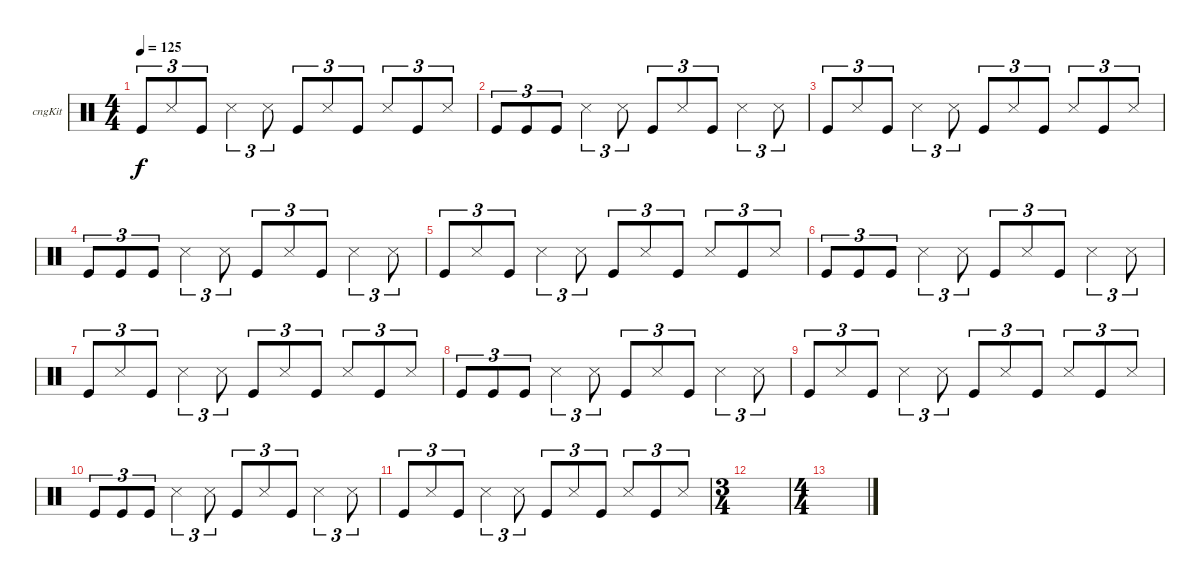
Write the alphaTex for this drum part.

\defaultSystemsLayout 4
\bracketExtendMode groupsimilarinstruments
\firstSystemTrackNameOrientation horizontal
\otherSystemsTrackNameOrientation horizontal
\track ("Congas" "cngKit") {instrument percussion}
\staff {score}
\articulation defaults
\ts (4 4)
\tempo 125
\clef neutral
\scale
0.333333
\ks c "Kick (hit)".8{tu (3 2) dy f} "Snare (side stick) 3".8{tu (3 2)} "Kick (hit)".8{tu (3 2)} "Snare (side stick) 3".4{tu (3 2)} "Snare (side stick) 3".8{tu (3 2)} "Kick (hit)".8{tu (3 2)} "Snare (side stick) 3".8{tu (3 2)} "Kick (hit)".8{tu (3 2)} "Snare (side stick) 3".8{tu (3 2)} "Kick (hit)".8{tu (3 2)} "Snare (side stick) 3".8{tu (3 2)}
|
\scale
0.333333 "Kick (hit)".8{tu (3 2)} "Kick (hit)".8{tu (3 2)} "Kick (hit)".8{tu (3 2)} "Snare (side stick) 3".4{tu (3 2)} "Snare (side stick) 3".8{tu (3 2)} "Kick (hit)".8{tu (3 2)} "Snare (side stick) 3".8{tu (3 2)} "Kick (hit)".8{tu (3 2)} "Snare (side stick) 3".4{tu (3 2)} "Snare (side stick) 3".8{tu (3 2)} |
\scale
0.333333 "Kick (hit)".8{tu (3 2)} "Snare (side stick) 3".8{tu (3 2)} "Kick (hit)".8{tu (3 2)} "Snare (side stick) 3".4{tu (3 2)} "Snare (side stick) 3".8{tu (3 2)} "Kick (hit)".8{tu (3 2)} "Snare (side stick) 3".8{tu (3 2)} "Kick (hit)".8{tu (3 2)} "Snare (side stick) 3".8{tu (3 2)} "Kick (hit)".8{tu (3 2)} "Snare (side stick) 3".8{tu (3 2)} |
\scale
0.333333 "Kick (hit)".8{tu (3 2)} "Kick (hit)".8{tu (3 2)} "Kick (hit)".8{tu (3 2)} "Snare (side stick) 3".4{tu (3 2)} "Snare (side stick) 3".8{tu (3 2)} "Kick (hit)".8{tu (3 2)} "Snare (side stick) 3".8{tu (3 2)} "Kick (hit)".8{tu (3 2)} "Snare (side stick) 3".4{tu (3 2)} "Snare (side stick) 3".8{tu (3 2)} |
\scale
0.333333 "Kick (hit)".8{tu (3 2)} "Snare (side stick) 3".8{tu (3 2)} "Kick (hit)".8{tu (3 2)} "Snare (side stick) 3".4{tu (3 2)} "Snare (side stick) 3".8{tu (3 2)} "Kick (hit)".8{tu (3 2)} "Snare (side stick) 3".8{tu (3 2)} "Kick (hit)".8{tu (3 2)} "Snare (side stick) 3".8{tu (3 2)} "Kick (hit)".8{tu (3 2)} "Snare (side stick) 3".8{tu (3 2)} |
\scale
0.333333 "Kick (hit)".8{tu (3 2)} "Kick (hit)".8{tu (3 2)} "Kick (hit)".8{tu (3 2)} "Snare (side stick) 3".4{tu (3 2)} "Snare (side stick) 3".8{tu (3 2)} "Kick (hit)".8{tu (3 2)} "Snare (side stick) 3".8{tu (3 2)} "Kick (hit)".8{tu (3 2)} "Snare (side stick) 3".4{tu (3 2)} "Snare (side stick) 3".8{tu (3 2)} |
\scale
0.333333 "Kick (hit)".8{tu (3 2)} "Snare (side stick) 3".8{tu (3 2)} "Kick (hit)".8{tu (3 2)} "Snare (side stick) 3".4{tu (3 2)} "Snare (side stick) 3".8{tu (3 2)} "Kick (hit)".8{tu (3 2)} "Snare (side stick) 3".8{tu (3 2)} "Kick (hit)".8{tu (3 2)} "Snare (side stick) 3".8{tu (3 2)} "Kick (hit)".8{tu (3 2)} "Snare (side stick) 3".8{tu (3 2)} |
\scale
0.333333 "Kick (hit)".8{tu (3 2)} "Kick (hit)".8{tu (3 2)} "Kick (hit)".8{tu (3 2)} "Snare (side stick) 3".4{tu (3 2)} "Snare (side stick) 3".8{tu (3 2)} "Kick (hit)".8{tu (3 2)} "Snare (side stick) 3".8{tu (3 2)} "Kick (hit)".8{tu (3 2)} "Snare (side stick) 3".4{tu (3 2)} "Snare (side stick) 3".8{tu (3 2)} |
\scale
0.333333 "Kick (hit)".8{tu (3 2)} "Snare (side stick) 3".8{tu (3 2)} "Kick (hit)".8{tu (3 2)} "Snare (side stick) 3".4{tu (3 2)} "Snare (side stick) 3".8{tu (3 2)} "Kick (hit)".8{tu (3 2)} "Snare (side stick) 3".8{tu (3 2)} "Kick (hit)".8{tu (3 2)} "Snare (side stick) 3".8{tu (3 2)} "Kick (hit)".8{tu (3 2)} "Snare (side stick) 3".8{tu (3 2)} |
\scale
0.262911 "Kick (hit)".8{tu (3 2)} "Kick (hit)".8{tu (3 2)} "Kick (hit)".8{tu (3 2)} "Snare (side stick) 3".4{tu (3 2)} "Snare (side stick) 3".8{tu (3 2)} "Kick (hit)".8{tu (3 2)} "Snare (side stick) 3".8{tu (3 2)} "Kick (hit)".8{tu (3 2)} "Snare (side stick) 3".4{tu (3 2)} "Snare (side stick) 3".8{tu (3 2)} |
\scale
0.262911 "Kick (hit)".8{tu (3 2)} "Snare (side stick) 3".8{tu (3 2)} "Kick (hit)".8{tu (3 2)} "Snare (side stick) 3".4{tu (3 2)} "Snare (side stick) 3".8{tu (3 2)} "Kick (hit)".8{tu (3 2)} "Snare (side stick) 3".8{tu (3 2)} "Kick (hit)".8{tu (3 2)} "Snare (side stick) 3".8{tu (3 2)} "Kick (hit)".8{tu (3 2)} "Snare (side stick) 3".8{tu (3 2)} |
\ts (3 4)
\scale
0.474178 |
\ts (4 4)
\scale
0.474178 |
\scale
0.262911 |
\scale
0.262911 |
\scale
0.333333
